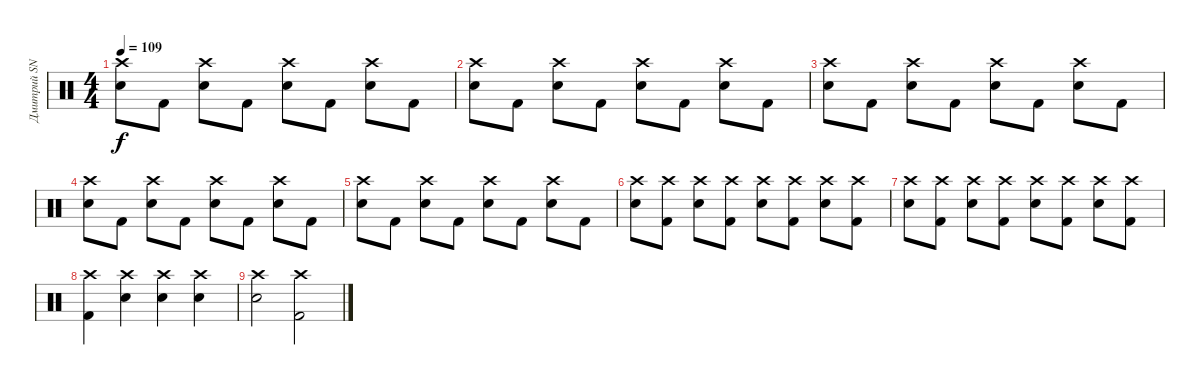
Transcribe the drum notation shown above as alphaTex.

\track ("Дмитрий SNAKE Хакимов" "Дмитрий SN") {instrument percussion}
\staff {score}
\articulation defaults
\ts (4 4)
\tempo 109
\clef neutral
\ks c
("Crash high (hit)" "Snare (hit) 2").8{dy f} "Kick (hit) 2".8 ("Crash high (hit)" "Snare (hit) 2").8 "Kick (hit) 2".8 ("Crash high (hit)" "Snare (hit) 2").8 "Kick (hit) 2".8 ("Crash high (hit)" "Snare (hit) 2").8 "Kick (hit) 2".8 |
("Crash high (hit)" "Snare (hit) 2").8 "Kick (hit) 2".8 ("Crash high (hit)" "Snare (hit) 2").8 "Kick (hit) 2".8 ("Crash high (hit)" "Snare (hit) 2").8 "Kick (hit) 2".8 ("Crash high (hit)" "Snare (hit) 2").8 "Kick (hit) 2".8 |
("Crash high (hit)" "Snare (hit) 2").8 "Kick (hit) 2".8 ("Crash high (hit)" "Snare (hit) 2").8 "Kick (hit) 2".8 ("Crash high (hit)" "Snare (hit) 2").8 "Kick (hit) 2".8 ("Crash high (hit)" "Snare (hit) 2").8 "Kick (hit) 2".8 |
("Crash high (hit)" "Snare (hit) 2").8 "Kick (hit) 2".8 ("Crash high (hit)" "Snare (hit) 2").8 "Kick (hit) 2".8 ("Crash high (hit)" "Snare (hit) 2").8 "Kick (hit) 2".8 ("Crash high (hit)" "Snare (hit) 2").8 "Kick (hit) 2".8 |
("Crash high (hit)" "Snare (hit) 2").8 "Kick (hit) 2".8 ("Crash high (hit)" "Snare (hit) 2").8 "Kick (hit) 2".8 ("Crash high (hit)" "Snare (hit) 2").8 "Kick (hit) 2".8 ("Crash high (hit)" "Snare (hit) 2").8 "Kick (hit) 2".8 |
("Crash high (hit)" "Snare (hit) 2").8 ("Crash high (hit)" "Kick (hit) 2").8 ("Crash high (hit)" "Snare (hit) 2").8 ("Crash high (hit)" "Kick (hit) 2").8 ("Crash high (hit)" "Snare (hit) 2").8 ("Crash high (hit)" "Kick (hit) 2").8 ("Crash high (hit)" "Snare (hit) 2").8 ("Crash high (hit)" "Kick (hit) 2").8 |
("Crash high (hit)" "Snare (hit) 2").8 ("Crash high (hit)" "Kick (hit) 2").8 ("Crash high (hit)" "Snare (hit) 2").8 ("Crash high (hit)" "Kick (hit) 2").8 ("Crash high (hit)" "Snare (hit) 2").8 ("Crash high (hit)" "Kick (hit) 2").8 ("Crash high (hit)" "Snare (hit) 2").8 ("Crash high (hit)" "Kick (hit) 2").8 |
("Crash high (hit)" "Kick (hit) 2").4 ("Crash high (hit)" "Snare (hit) 2").4 ("Crash high (hit)" "Snare (hit) 2").4 ("Crash high (hit)" "Snare (hit) 2").4 |
("Crash high (hit)" "Snare (hit) 2").2 ("Crash high (hit)" "Kick (hit) 2").2
